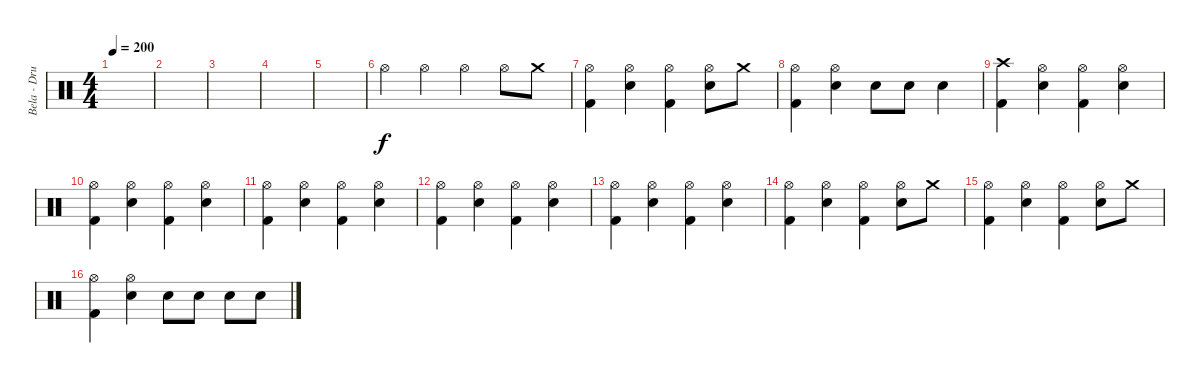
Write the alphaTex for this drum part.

\track ("Bela - Drums" "Bela - Dru") {instrument percussion}
\staff {score}
\articulation defaults
\ts (4 4)
\tempo 200
\clef neutral
\ks c
|
|
|
|
|
"Hi-Hat (open)".4 "Hi-Hat (open)".4 "Hi-Hat (open)".4 "Hi-Hat (open)".8 "Crash medium (hit)".8 |
("Hi-Hat (open)" "Kick (hit) 2").4 ("Hi-Hat (open)" "Snare (hit) 2").4 ("Hi-Hat (open)" "Kick (hit) 2").4 ("Hi-Hat (open)" "Snare (hit) 2").8 "Crash medium (hit)".8 |
("Hi-Hat (open)" "Kick (hit) 2").4 ("Hi-Hat (open)" "Snare (hit) 2").4 "Snare (hit) 2".8 "Snare (hit) 2".8 "Snare (hit) 2".4 |
("Crash high (hit)" "Kick (hit) 2").4 ("Hi-Hat (open)" "Snare (hit) 2").4 ("Hi-Hat (open)" "Kick (hit) 2").4 ("Hi-Hat (open)" "Snare (hit) 2").4 |
("Hi-Hat (open)" "Kick (hit) 2").4 ("Hi-Hat (open)" "Snare (hit) 2").4 ("Hi-Hat (open)" "Kick (hit) 2").4 ("Hi-Hat (open)" "Snare (hit) 2").4 |
("Hi-Hat (open)" "Kick (hit) 2").4 ("Hi-Hat (open)" "Snare (hit) 2").4 ("Hi-Hat (open)" "Kick (hit) 2").4 ("Hi-Hat (open)" "Snare (hit) 2").4 |
("Hi-Hat (open)" "Kick (hit) 2").4 ("Hi-Hat (open)" "Snare (hit) 2").4 ("Hi-Hat (open)" "Kick (hit) 2").4 ("Hi-Hat (open)" "Snare (hit) 2").4 |
("Hi-Hat (open)" "Kick (hit) 2").4 ("Hi-Hat (open)" "Snare (hit) 2").4 ("Hi-Hat (open)" "Kick (hit) 2").4 ("Hi-Hat (open)" "Snare (hit) 2").4 |
("Hi-Hat (open)" "Kick (hit) 2").4 ("Hi-Hat (open)" "Snare (hit) 2").4 ("Hi-Hat (open)" "Kick (hit) 2").4 ("Hi-Hat (open)" "Snare (hit) 2").8 "Crash medium (hit)".8 |
("Hi-Hat (open)" "Kick (hit) 2").4 ("Hi-Hat (open)" "Snare (hit) 2").4 ("Hi-Hat (open)" "Kick (hit) 2").4 ("Hi-Hat (open)" "Snare (hit) 2").8 "Crash medium (hit)".8 |
("Hi-Hat (open)" "Kick (hit) 2").4 ("Hi-Hat (open)" "Snare (hit) 2").4 "Snare (hit) 2".8 "Snare (hit) 2".8 "Snare (hit) 2".8 "Snare (hit) 2".8
